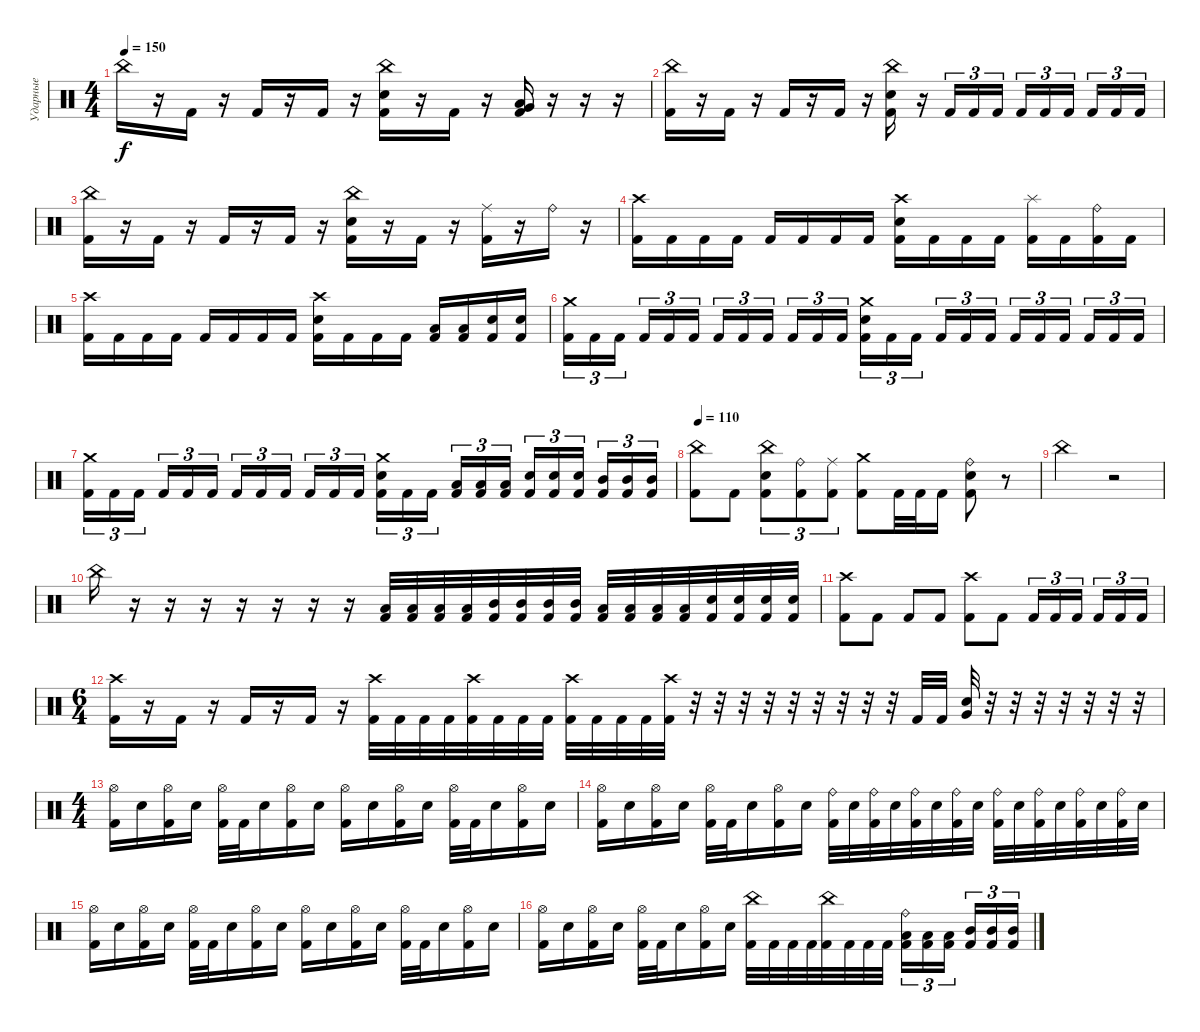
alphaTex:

\track ("Ударные" "Ударные") {instrument percussion}
\staff {score}
\articulation defaults
\ts (4 4)
\tempo 150
\clef neutral
\ks c "China (hit)".16{dy f}
r.16 "Kick (hit) 2".16 r.16 "Kick (hit) 2".16 r.16 "Kick (hit) 2".16 r.16 ("China (hit)" "Electric Snare (hit)" "Kick (hit) 2").16 r.16 "Kick (hit) 2".16 r.16 ("Very Low Tom (hit)" "Low Tom (hit)" "Kick (hit) 2").16 r.16 r.16 r.16 |
("China (hit)" "Kick (hit) 2").16 r.16 "Kick (hit) 2".16 r.16 "Kick (hit) 2".16 r.16 "Kick (hit) 2".16 r.16 ("China (hit)" "Electric Snare (hit)" "Kick (hit) 2").16 r.16 "Kick (hit) 2".16{tu (3 2)} "Kick (hit) 2".16{tu (3 2)} "Kick (hit) 2".16{tu (3 2)} "Kick (hit) 2".16{tu (3 2)} "Kick (hit) 2".16{tu (3 2)} "Kick (hit) 2".16{tu (3 2) beam splitsecondary} "Kick (hit) 2".16{tu (3 2)} "Kick (hit) 2".16{tu (3 2)} "Kick (hit) 2".16{tu (3 2)} |
("China (hit)" "Kick (hit) 2").16 r.16 "Kick (hit) 2".16 r.16 "Kick (hit) 2".16 r.16 "Kick (hit) 2".16 r.16 ("China (hit)" "Electric Snare (hit)" "Kick (hit) 2").16 r.16 "Kick (hit) 2".16 r.16 ("Ride (middle)" "Kick (hit) 2").16 r.16 "Ride (bell)".16 r.16 |
("Crash high (hit)" "Kick (hit) 2").16 "Kick (hit) 2".16 "Kick (hit) 2".16 "Kick (hit) 2".16 "Kick (hit) 2".16 "Kick (hit) 2".16 "Kick (hit) 2".16 "Kick (hit) 2".16 ("Crash high (hit)" "Electric Snare (hit)" "Kick (hit) 2").16 "Kick (hit) 2".16 "Kick (hit) 2".16 "Kick (hit) 2".16 ("Splash (hit)" "Kick (hit) 2").16 "Kick (hit) 2".16 ("Ride (bell)" "Kick (hit) 2").16 "Kick (hit) 2".16 |
("Crash high (hit)" "Kick (hit) 2").16 "Kick (hit) 2".16 "Kick (hit) 2".16 "Kick (hit) 2".16 "Kick (hit) 2".16 "Kick (hit) 2".16 "Kick (hit) 2".16 "Kick (hit) 2".16 ("Crash high (hit)" "Electric Snare (hit)" "Kick (hit) 2").16 "Kick (hit) 2".16 "Kick (hit) 2".16 "Kick (hit) 2".16 ("Low Tom (hit)" "Kick (hit) 2").16 ("Low Tom (hit)" "Kick (hit) 2").16 ("Electric Snare (hit)" "Kick (hit) 2").16 ("Electric Snare (hit)" "Kick (hit) 2").16 |
("Crash medium (hit)" "Kick (hit) 2").16{tu (3 2)} "Kick (hit) 2".16{tu (3 2)} "Kick (hit) 2".16{tu (3 2) beam splitsecondary} "Kick (hit) 2".16{tu (3 2)} "Kick (hit) 2".16{tu (3 2)} "Kick (hit) 2".16{tu (3 2)} "Kick (hit) 2".16{tu (3 2)} "Kick (hit) 2".16{tu (3 2)} "Kick (hit) 2".16{tu (3 2) beam splitsecondary} "Kick (hit) 2".16{tu (3 2)} "Kick (hit) 2".16{tu (3 2)} "Kick (hit) 2".16{tu (3 2)} ("Crash medium (hit)" "Electric Snare (hit)" "Kick (hit) 2").16{tu (3 2)} "Kick (hit) 2".16{tu (3 2)} "Kick (hit) 2".16{tu (3 2) beam splitsecondary} "Kick (hit) 2".16{tu (3 2)} "Kick (hit) 2".16{tu (3 2)} "Kick (hit) 2".16{tu (3 2)} "Kick (hit) 2".16{tu (3 2)} "Kick (hit) 2".16{tu (3 2)} "Kick (hit) 2".16{tu (3 2) beam splitsecondary} "Kick (hit) 2".16{tu (3 2)} "Kick (hit) 2".16{tu (3 2)} "Kick (hit) 2".16{tu (3 2)} |
("Crash medium (hit)" "Kick (hit) 2").16{tu (3 2)} "Kick (hit) 2".16{tu (3 2)} "Kick (hit) 2".16{tu (3 2) beam splitsecondary} "Kick (hit) 2".16{tu (3 2)} "Kick (hit) 2".16{tu (3 2)} "Kick (hit) 2".16{tu (3 2)} "Kick (hit) 2".16{tu (3 2)} "Kick (hit) 2".16{tu (3 2)} "Kick (hit) 2".16{tu (3 2) beam splitsecondary} "Kick (hit) 2".16{tu (3 2)} "Kick (hit) 2".16{tu (3 2)} "Kick (hit) 2".16{tu (3 2)} ("Crash medium (hit)" "Electric Snare (hit)" "Kick (hit) 2").16{tu (3 2)} "Kick (hit) 2".16{tu (3 2)} "Kick (hit) 2".16{tu (3 2) beam splitsecondary} ("Low Tom (hit)" "Kick (hit) 2").16{tu (3 2)} ("Low Tom (hit)" "Kick (hit) 2").16{tu (3 2)} ("Low Tom (hit)" "Kick (hit) 2").16{tu (3 2)} ("Electric Snare (hit)" "Kick (hit) 2").16{tu (3 2)} ("Electric Snare (hit)" "Kick (hit) 2").16{tu (3 2)} ("Electric Snare (hit)" "Kick (hit) 2").16{tu (3 2) beam splitsecondary} ("Mid Tom (hit)" "Kick (hit) 2").16{tu (3 2)} ("Mid Tom (hit)" "Kick (hit) 2").16{tu (3 2)} ("Mid Tom (hit)" "Kick (hit) 2").16{tu (3 2)} |
\tempo 110
("China (hit)" "Kick (hit) 2").8 "Kick (hit) 2".8 ("China (hit)" "Electric Snare (hit)" "Kick (hit) 2").8{tu (3 2)} ("Ride (bell)" "Kick (hit) 2").8{tu (3 2)} ("Ride (middle)" "Kick (hit) 2").8{tu (3 2)} ("Crash medium (hit)" "Kick (hit) 2").8 "Kick (hit) 2".32 "Kick (hit) 2".32 "Kick (hit) 2".16 ("Ride (bell)" "Electric Snare (hit)" "Kick (hit) 2").8 r.8 |
"China (hit)".2 r.2 |
"China (hit)".16 r.16 r.16 r.16 r.16 r.16 r.16 r.16 ("Low Tom (hit)" "Kick (hit) 2").32 ("Low Tom (hit)" "Kick (hit) 2").32 ("Low Tom (hit)" "Kick (hit) 2").32 ("Low Tom (hit)" "Kick (hit) 2").32 ("Mid Tom (hit)" "Kick (hit) 2").32 ("Mid Tom (hit)" "Kick (hit) 2").32 ("Mid Tom (hit)" "Kick (hit) 2").32 ("Mid Tom (hit)" "Kick (hit) 2").32 ("Low Floor Tom (hit)" "Kick (hit) 2").32 ("Low Floor Tom (hit)" "Kick (hit) 2").32 ("Low Floor Tom (hit)" "Kick (hit) 2").32 ("Low Floor Tom (hit)" "Kick (hit) 2").32 ("Electric Snare (hit)" "Kick (hit) 2").32 ("Electric Snare (hit)" "Kick (hit) 2").32 ("Electric Snare (hit)" "Kick (hit) 2").32 ("Electric Snare (hit)" "Kick (hit) 2").32 |
("Crash high (hit)" "Kick (hit) 2").8 "Kick (hit) 2".8 "Kick (hit) 2".8 "Kick (hit) 2".8 ("Crash high (hit)" "Kick (hit) 2").8 "Kick (hit) 2".8 "Kick (hit) 2".16{tu (3 2)} "Kick (hit) 2".16{tu (3 2)} "Kick (hit) 2".16{tu (3 2) beam splitsecondary} "Kick (hit) 2".16{tu (3 2)} "Kick (hit) 2".16{tu (3 2)} "Kick (hit) 2".16{tu (3 2)} |
\ts (6 4)
("Crash high (hit)" "Kick (hit) 2").16 r.16 "Kick (hit) 2".16 r.16 "Kick (hit) 2".16 r.16 "Kick (hit) 2".16 r.16 ("Crash high (hit)" "Kick (hit) 2").32 "Kick (hit) 2".32 "Kick (hit) 2".32 "Kick (hit) 2".32 ("Crash high (hit)" "Kick (hit) 2").32 "Kick (hit) 2".32 "Kick (hit) 2".32 "Kick (hit) 2".32 ("Crash high (hit)" "Kick (hit) 2").32 "Kick (hit) 2".32 "Kick (hit) 2".32 "Kick (hit) 2".32 ("Crash high (hit)" "Kick (hit) 2").32 r.32 r.32 r.32 r.32 r.32 r.32 r.32 r.32 r.32 "Kick (hit) 2".32 "Kick (hit) 2".32 ("Very Low Tom (hit)" "Electric Snare (hit)").32 r.32 r.32 r.32 r.32 r.32 r.32 r.32 |
\ts (4 4)
("Hi-Hat (open)" "Kick (hit) 2").16 "Electric Snare (hit)".16 ("Hi-Hat (open)" "Kick (hit) 2").16 "Electric Snare (hit)".16 ("Hi-Hat (open)" "Kick (hit) 2").32 "Kick (hit) 2".32 "Electric Snare (hit)".16 ("Hi-Hat (open)" "Kick (hit) 2").16 "Electric Snare (hit)".16 ("Hi-Hat (open)" "Kick (hit) 2").16 "Electric Snare (hit)".16 ("Hi-Hat (open)" "Kick (hit) 2").16 "Electric Snare (hit)".16 ("Hi-Hat (open)" "Kick (hit) 2").32 "Kick (hit) 2".32 "Electric Snare (hit)".16 ("Hi-Hat (open)" "Kick (hit) 2").16 "Electric Snare (hit)".16 |
("Hi-Hat (open)" "Kick (hit) 2").16 "Electric Snare (hit)".16 ("Hi-Hat (open)" "Kick (hit) 2").16 "Electric Snare (hit)".16 ("Hi-Hat (open)" "Kick (hit) 2").32 "Kick (hit) 2".32 "Electric Snare (hit)".16 ("Hi-Hat (open)" "Kick (hit) 2").16 "Electric Snare (hit)".16 ("Ride (bell)" "Kick (hit) 2").32 "Electric Snare (hit)".32 ("Ride (bell)" "Kick (hit) 2").32 "Electric Snare (hit)".32 ("Ride (bell)" "Kick (hit) 2").32 "Electric Snare (hit)".32 ("Ride (bell)" "Kick (hit) 2").32 "Electric Snare (hit)".32 ("Ride (bell)" "Kick (hit) 2").32 "Electric Snare (hit)".32 ("Ride (bell)" "Kick (hit) 2").32 "Electric Snare (hit)".32 ("Ride (bell)" "Kick (hit) 2").32 "Electric Snare (hit)".32 ("Ride (bell)" "Kick (hit) 2").32 "Electric Snare (hit)".32 |
("Hi-Hat (open)" "Kick (hit) 2").16 "Electric Snare (hit)".16 ("Hi-Hat (open)" "Kick (hit) 2").16 "Electric Snare (hit)".16 ("Hi-Hat (open)" "Kick (hit) 2").32 "Kick (hit) 2".32 "Electric Snare (hit)".16 ("Hi-Hat (open)" "Kick (hit) 2").16 "Electric Snare (hit)".16 ("Hi-Hat (open)" "Kick (hit) 2").16 "Electric Snare (hit)".16 ("Hi-Hat (open)" "Kick (hit) 2").16 "Electric Snare (hit)".16 ("Hi-Hat (open)" "Kick (hit) 2").32 "Kick (hit) 2".32 "Electric Snare (hit)".16 ("Hi-Hat (open)" "Kick (hit) 2").16 "Electric Snare (hit)".16 |
("Hi-Hat (open)" "Kick (hit) 2").16 "Electric Snare (hit)".16 ("Hi-Hat (open)" "Kick (hit) 2").16 "Electric Snare (hit)".16 ("Hi-Hat (open)" "Kick (hit) 2").32 "Kick (hit) 2".32 "Electric Snare (hit)".16 ("Hi-Hat (open)" "Kick (hit) 2").16 "Electric Snare (hit)".16 ("China (hit)" "Kick (hit) 2").32 "Kick (hit) 2".32 "Kick (hit) 2".32 "Kick (hit) 2".32 ("China (hit)" "Kick (hit) 2").32 "Kick (hit) 2".32 "Kick (hit) 2".32 "Kick (hit) 2".32 ("Ride (bell)" "Low Tom (hit)" "Kick (hit) 2").16{tu (3 2)} ("Low Tom (hit)" "Kick (hit) 2").16{tu (3 2)} ("Low Tom (hit)" "Kick (hit) 2").16{tu (3 2) beam splitsecondary} ("Mid Tom (hit)" "Kick (hit) 2").16{tu (3 2)} ("Mid Tom (hit)" "Kick (hit) 2").16{tu (3 2)} ("Mid Tom (hit)" "Kick (hit) 2").16{tu (3 2)}
